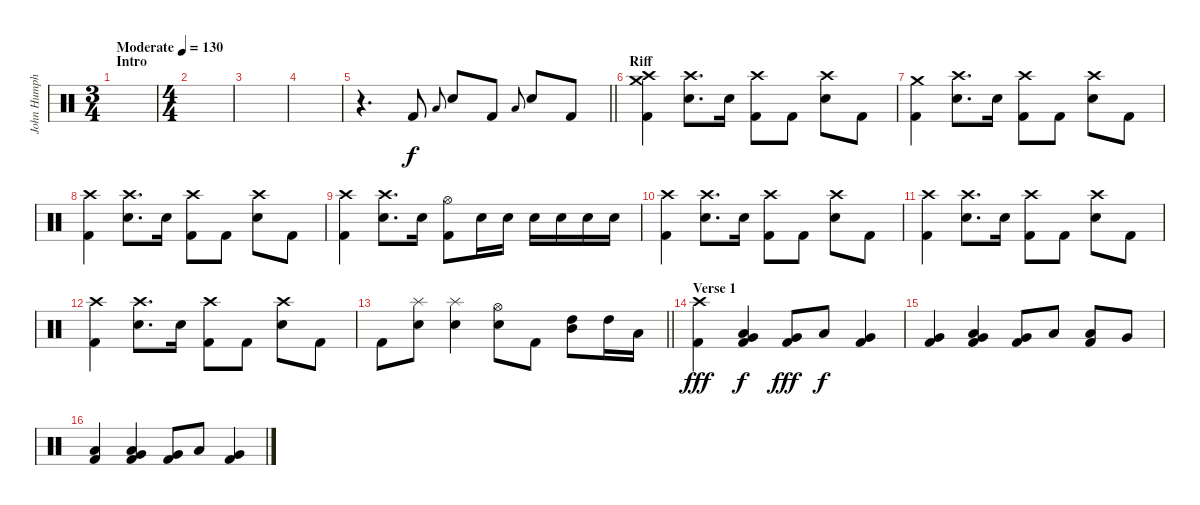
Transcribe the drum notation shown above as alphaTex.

\track ("John Humphrey" "John Humph") {instrument percussion}
\staff {score}
\articulation defaults
\ts (3 4)
\section ("" "Intro")
\tempo (130 "Moderate")
\clef neutral
\ks c
|
\ts (4 4)
|
|
|
\barLineRight lightlight
r.4{d} "Kick (hit) 2".8 "Low Floor Tom (hit)".8{gr onbeat} "Electric Snare (hit)".8 "Kick (hit) 2".8 "Low Floor Tom (hit)".8{gr onbeat} "Electric Snare (hit)".8 "Kick (hit) 2".8 |
\section ("" "Riff")
("Crash medium (hit)" "Crash high (hit)" "Kick (hit) 2").4 ("Crash high (hit)" "Electric Snare (hit)").8{d} "Electric Snare (hit)".16 ("Crash high (hit)" "Kick (hit) 2").8 "Kick (hit) 2".8 ("Crash high (hit)" "Electric Snare (hit)").8 "Kick (hit) 2".8 |
("Crash medium (hit)" "Kick (hit) 2").4 ("Crash high (hit)" "Electric Snare (hit)").8{d} "Electric Snare (hit)".16 ("Crash high (hit)" "Kick (hit) 2").8 "Kick (hit) 2".8 ("Crash high (hit)" "Electric Snare (hit)").8 "Kick (hit) 2".8 |
("Crash high (hit)" "Kick (hit) 2").4 ("Crash high (hit)" "Electric Snare (hit)").8{d} "Electric Snare (hit)".16 ("Crash high (hit)" "Kick (hit) 2").8 "Kick (hit) 2".8 ("Crash high (hit)" "Electric Snare (hit)").8 "Kick (hit) 2".8 |
("Crash high (hit)" "Kick (hit) 2").4 ("Crash high (hit)" "Electric Snare (hit)").8{d} "Electric Snare (hit)".16 ("Hi-Hat (open)" "Kick (hit) 2").8 "Electric Snare (hit)".16 "Electric Snare (hit)".16 "Electric Snare (hit)".16 "Electric Snare (hit)".16 "Electric Snare (hit)".16 "Electric Snare (hit)".16 |
("Crash high (hit)" "Kick (hit) 2").4 ("Crash high (hit)" "Electric Snare (hit)").8{d} "Electric Snare (hit)".16 ("Crash high (hit)" "Kick (hit) 2").8 "Kick (hit) 2".8 ("Crash high (hit)" "Electric Snare (hit)").8 "Kick (hit) 2".8 |
("Crash high (hit)" "Kick (hit) 2").4 ("Crash high (hit)" "Electric Snare (hit)").8{d} "Electric Snare (hit)".16 ("Crash high (hit)" "Kick (hit) 2").8 "Kick (hit) 2".8 ("Crash high (hit)" "Electric Snare (hit)").8 "Kick (hit) 2".8 |
("Crash high (hit)" "Kick (hit) 2").4 ("Crash high (hit)" "Electric Snare (hit)").8{d} "Electric Snare (hit)".16 ("Crash high (hit)" "Kick (hit) 2").8 "Kick (hit) 2".8 ("Crash high (hit)" "Electric Snare (hit)").8 "Kick (hit) 2".8 |
\barLineRight lightlight "Kick (hit) 2".8
("Splash (hit)" "Electric Snare (hit)").8 ("Splash (hit)" "Electric Snare (hit)").4 ("Hi-Hat (open)" "Electric Snare (hit)").8 "Kick (hit) 2".8 ("Mid Tom (hit)" "High Tom (hit)").8{bd 120} "High Tom (hit)".16 "Low Tom (hit)".16 |
\section ("" "Verse 1")
("Crash high (hit)" "Kick (hit) 2").4{dy fff} ("Low Tom (hit)" "Very Low Tom (hit)" "Kick (hit) 2").4{dy f} ("Very Low Tom (hit)" "Kick (hit) 2").8{dy fff} "Low Tom (hit)".8{dy f} ("Very Low Tom (hit)" "Kick (hit) 2").4 |
("Very Low Tom (hit)" "Kick (hit) 2").4 ("Low Tom (hit)" "Very Low Tom (hit)" "Kick (hit) 2").4 ("Very Low Tom (hit)" "Kick (hit) 2").8 "Low Tom (hit)".8 ("Low Floor Tom (hit)" "Kick (hit) 2").8 "Very Low Tom (hit)".8 |
("Low Floor Tom (hit)" "Kick (hit) 2").4 ("Low Tom (hit)" "Very Low Tom (hit)" "Kick (hit) 2").4 ("Very Low Tom (hit)" "Kick (hit) 2").8 "Low Tom (hit)".8 ("Very Low Tom (hit)" "Kick (hit) 2").4
